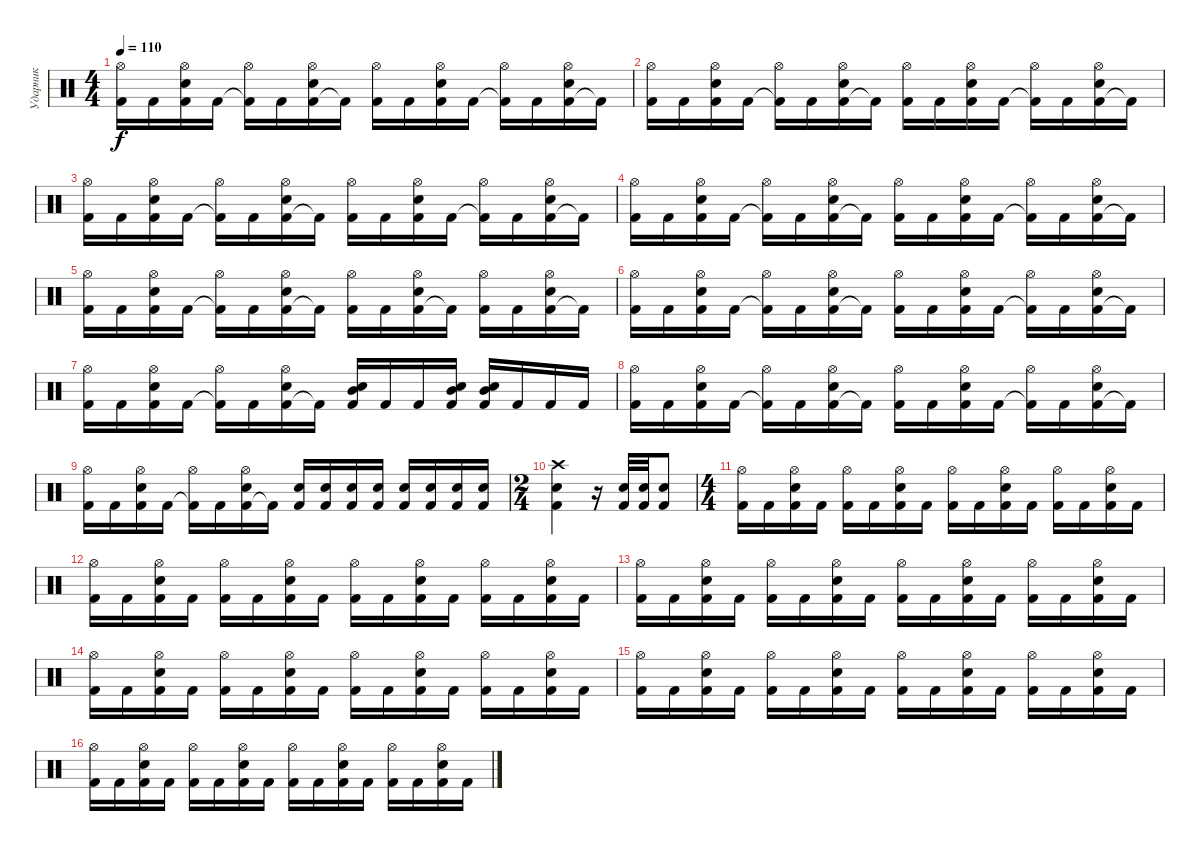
\track ("Ударник" "Ударник") {instrument percussion}
\staff
\articulation defaults
\ts (4 4)
\tempo 110
\clef neutral
\ks c
("Kick (hit) 2" "Hi-Hat (open)").16{dy f} "Kick (hit) 2".16 ("Kick (hit) 2" "Snare (hit) 2" "Hi-Hat (open)").16 "Kick (hit) 2".16 ("Kick (hit) 2"{t} "Hi-Hat (open)").16 "Kick (hit) 2".16 ("Kick (hit) 2" "Snare (hit) 2" "Hi-Hat (open)").16 "Kick (hit) 2"{t}.16 ("Kick (hit) 2" "Hi-Hat (open)").16 "Kick (hit) 2".16 ("Kick (hit) 2" "Snare (hit) 2" "Hi-Hat (open)").16 "Kick (hit) 2".16 ("Kick (hit) 2"{t} "Hi-Hat (open)").16 "Kick (hit) 2".16 ("Kick (hit) 2" "Snare (hit) 2" "Hi-Hat (open)").16 "Kick (hit) 2"{t}.16 |
("Kick (hit) 2" "Hi-Hat (open)").16 "Kick (hit) 2".16 ("Kick (hit) 2" "Snare (hit) 2" "Hi-Hat (open)").16 "Kick (hit) 2".16 ("Kick (hit) 2"{t} "Hi-Hat (open)").16 "Kick (hit) 2".16 ("Kick (hit) 2" "Snare (hit) 2" "Hi-Hat (open)").16 "Kick (hit) 2"{t}.16 ("Kick (hit) 2" "Hi-Hat (open)").16 "Kick (hit) 2".16 ("Kick (hit) 2" "Snare (hit) 2" "Hi-Hat (open)").16 "Kick (hit) 2".16 ("Kick (hit) 2"{t} "Hi-Hat (open)").16 "Kick (hit) 2".16 ("Kick (hit) 2" "Snare (hit) 2" "Hi-Hat (open)").16 "Kick (hit) 2"{t}.16 |
("Kick (hit) 2" "Hi-Hat (open)").16 "Kick (hit) 2".16 ("Kick (hit) 2" "Snare (hit) 2" "Hi-Hat (open)").16 "Kick (hit) 2".16 ("Kick (hit) 2"{t} "Hi-Hat (open)").16 "Kick (hit) 2".16 ("Kick (hit) 2" "Snare (hit) 2" "Hi-Hat (open)").16 "Kick (hit) 2"{t}.16 ("Kick (hit) 2" "Hi-Hat (open)").16 "Kick (hit) 2".16 ("Kick (hit) 2" "Snare (hit) 2" "Hi-Hat (open)").16 "Kick (hit) 2".16 ("Kick (hit) 2"{t} "Hi-Hat (open)").16 "Kick (hit) 2".16 ("Kick (hit) 2" "Snare (hit) 2" "Hi-Hat (open)").16 "Kick (hit) 2"{t}.16 |
("Kick (hit) 2" "Hi-Hat (open)").16 "Kick (hit) 2".16 ("Kick (hit) 2" "Snare (hit) 2" "Hi-Hat (open)").16 "Kick (hit) 2".16 ("Kick (hit) 2"{t} "Hi-Hat (open)").16 "Kick (hit) 2".16 ("Kick (hit) 2" "Snare (hit) 2" "Hi-Hat (open)").16 "Kick (hit) 2"{t}.16 ("Kick (hit) 2" "Hi-Hat (open)").16 "Kick (hit) 2".16 ("Kick (hit) 2" "Snare (hit) 2" "Hi-Hat (open)").16 "Kick (hit) 2".16 ("Kick (hit) 2"{t} "Hi-Hat (open)").16 "Kick (hit) 2".16 ("Kick (hit) 2" "Snare (hit) 2" "Hi-Hat (open)").16 "Kick (hit) 2"{t}.16 |
("Kick (hit) 2" "Hi-Hat (open)").16 "Kick (hit) 2".16 ("Kick (hit) 2" "Snare (hit) 2" "Hi-Hat (open)").16 "Kick (hit) 2".16 ("Kick (hit) 2"{t} "Hi-Hat (open)").16 "Kick (hit) 2".16 ("Kick (hit) 2" "Snare (hit) 2" "Hi-Hat (open)").16 "Kick (hit) 2"{t}.16 ("Kick (hit) 2" "Hi-Hat (open)").16 "Kick (hit) 2".16 ("Kick (hit) 2" "Snare (hit) 2" "Hi-Hat (open)").16 "Kick (hit) 2"{t}.16 ("Kick (hit) 2" "Hi-Hat (open)").16 "Kick (hit) 2".16 ("Kick (hit) 2" "Snare (hit) 2" "Hi-Hat (open)").16 "Kick (hit) 2"{t}.16 |
("Kick (hit) 2" "Hi-Hat (open)").16 "Kick (hit) 2".16 ("Kick (hit) 2" "Snare (hit) 2" "Hi-Hat (open)").16 "Kick (hit) 2".16 ("Kick (hit) 2"{t} "Hi-Hat (open)").16 "Kick (hit) 2".16 ("Kick (hit) 2" "Snare (hit) 2" "Hi-Hat (open)").16 "Kick (hit) 2"{t}.16 ("Kick (hit) 2" "Hi-Hat (open)").16 "Kick (hit) 2".16 ("Kick (hit) 2" "Snare (hit) 2" "Hi-Hat (open)").16 "Kick (hit) 2".16 ("Kick (hit) 2"{t} "Hi-Hat (open)").16 "Kick (hit) 2".16 ("Kick (hit) 2" "Snare (hit) 2" "Hi-Hat (open)").16 "Kick (hit) 2"{t}.16 |
("Kick (hit) 2" "Hi-Hat (open)").16 "Kick (hit) 2".16 ("Kick (hit) 2" "Snare (hit) 2" "Hi-Hat (open)").16 "Kick (hit) 2".16 ("Kick (hit) 2"{t} "Hi-Hat (open)").16 "Kick (hit) 2".16 ("Kick (hit) 2" "Snare (hit) 2" "Hi-Hat (open)").16 "Kick (hit) 2"{t}.16 ("Kick (hit) 2" "Snare (hit) 2" "Mid Tom (hit)").16 "Kick (hit) 2".16 "Kick (hit) 2".16 ("Kick (hit) 2" "Snare (hit) 2" "Mid Tom (hit)").16 ("Kick (hit) 2" "Snare (hit) 2" "Mid Tom (hit)").16 "Kick (hit) 2".16 "Kick (hit) 2".16 "Kick (hit) 2".16 |
("Kick (hit) 2" "Hi-Hat (open)").16 "Kick (hit) 2".16 ("Kick (hit) 2" "Snare (hit) 2" "Hi-Hat (open)").16 "Kick (hit) 2".16 ("Kick (hit) 2"{t} "Hi-Hat (open)").16 "Kick (hit) 2".16 ("Kick (hit) 2" "Snare (hit) 2" "Hi-Hat (open)").16 "Kick (hit) 2"{t}.16 ("Kick (hit) 2" "Hi-Hat (open)").16 "Kick (hit) 2".16 ("Kick (hit) 2" "Snare (hit) 2" "Hi-Hat (open)").16 "Kick (hit) 2".16 ("Kick (hit) 2"{t} "Hi-Hat (open)").16 "Kick (hit) 2".16 ("Kick (hit) 2" "Snare (hit) 2" "Hi-Hat (open)").16 "Kick (hit) 2"{t}.16 |
("Kick (hit) 2" "Hi-Hat (open)").16 "Kick (hit) 2".16 ("Kick (hit) 2" "Snare (hit) 2" "Hi-Hat (open)").16 "Kick (hit) 2".16 ("Kick (hit) 2"{t} "Hi-Hat (open)").16 "Kick (hit) 2".16 ("Kick (hit) 2" "Snare (hit) 2" "Hi-Hat (open)").16 "Kick (hit) 2"{t}.16 ("Kick (hit) 2" "Snare (hit) 2").16 ("Kick (hit) 2" "Snare (hit) 2").16 ("Kick (hit) 2" "Snare (hit) 2").16 ("Kick (hit) 2" "Snare (hit) 2").16 ("Kick (hit) 2" "Snare (hit) 2").16 ("Kick (hit) 2" "Snare (hit) 2").16 ("Kick (hit) 2" "Snare (hit) 2").16 ("Kick (hit) 2" "Snare (hit) 2").16 |
\ts (2 4)
("Kick (hit) 2" "Snare (hit) 2" "Crash high (hit)").4 r.16 ("Kick (hit) 2" "Snare (hit) 2").32 ("Kick (hit) 2" "Snare (hit) 2").32 ("Kick (hit) 2" "Snare (hit) 2").8 |
\ts (4 4)
("Kick (hit) 2" "Hi-Hat (open)").16 "Kick (hit) 2".16 ("Kick (hit) 2" "Snare (hit) 2" "Hi-Hat (open)").16 "Kick (hit) 2".16 ("Kick (hit) 2" "Hi-Hat (open)").16 "Kick (hit) 2".16 ("Kick (hit) 2" "Snare (hit) 2" "Hi-Hat (open)").16 "Kick (hit) 2".16 ("Kick (hit) 2" "Hi-Hat (open)").16 "Kick (hit) 2".16 ("Kick (hit) 2" "Snare (hit) 2" "Hi-Hat (open)").16 "Kick (hit) 2".16 ("Kick (hit) 2" "Hi-Hat (open)").16 "Kick (hit) 2".16 ("Kick (hit) 2" "Snare (hit) 2" "Hi-Hat (open)").16 "Kick (hit) 2".16 |
("Kick (hit) 2" "Hi-Hat (open)").16 "Kick (hit) 2".16 ("Kick (hit) 2" "Snare (hit) 2" "Hi-Hat (open)").16 "Kick (hit) 2".16 ("Kick (hit) 2" "Hi-Hat (open)").16 "Kick (hit) 2".16 ("Kick (hit) 2" "Snare (hit) 2" "Hi-Hat (open)").16 "Kick (hit) 2".16 ("Kick (hit) 2" "Hi-Hat (open)").16 "Kick (hit) 2".16 ("Kick (hit) 2" "Snare (hit) 2" "Hi-Hat (open)").16 "Kick (hit) 2".16 ("Kick (hit) 2" "Hi-Hat (open)").16 "Kick (hit) 2".16 ("Kick (hit) 2" "Snare (hit) 2" "Hi-Hat (open)").16 "Kick (hit) 2".16 |
("Kick (hit) 2" "Hi-Hat (open)").16 "Kick (hit) 2".16 ("Kick (hit) 2" "Snare (hit) 2" "Hi-Hat (open)").16 "Kick (hit) 2".16 ("Kick (hit) 2" "Hi-Hat (open)").16 "Kick (hit) 2".16 ("Kick (hit) 2" "Snare (hit) 2" "Hi-Hat (open)").16 "Kick (hit) 2".16 ("Kick (hit) 2" "Hi-Hat (open)").16 "Kick (hit) 2".16 ("Kick (hit) 2" "Snare (hit) 2" "Hi-Hat (open)").16 "Kick (hit) 2".16 ("Kick (hit) 2" "Hi-Hat (open)").16 "Kick (hit) 2".16 ("Kick (hit) 2" "Snare (hit) 2" "Hi-Hat (open)").16 "Kick (hit) 2".16 |
("Kick (hit) 2" "Hi-Hat (open)").16 "Kick (hit) 2".16 ("Kick (hit) 2" "Snare (hit) 2" "Hi-Hat (open)").16 "Kick (hit) 2".16 ("Kick (hit) 2" "Hi-Hat (open)").16 "Kick (hit) 2".16 ("Kick (hit) 2" "Snare (hit) 2" "Hi-Hat (open)").16 "Kick (hit) 2".16 ("Kick (hit) 2" "Hi-Hat (open)").16 "Kick (hit) 2".16 ("Kick (hit) 2" "Snare (hit) 2" "Hi-Hat (open)").16 "Kick (hit) 2".16 ("Kick (hit) 2" "Hi-Hat (open)").16 "Kick (hit) 2".16 ("Kick (hit) 2" "Snare (hit) 2" "Hi-Hat (open)").16 "Kick (hit) 2".16 |
("Kick (hit) 2" "Hi-Hat (open)").16 "Kick (hit) 2".16 ("Kick (hit) 2" "Snare (hit) 2" "Hi-Hat (open)").16 "Kick (hit) 2".16 ("Kick (hit) 2" "Hi-Hat (open)").16 "Kick (hit) 2".16 ("Kick (hit) 2" "Snare (hit) 2" "Hi-Hat (open)").16 "Kick (hit) 2".16 ("Kick (hit) 2" "Hi-Hat (open)").16 "Kick (hit) 2".16 ("Kick (hit) 2" "Snare (hit) 2" "Hi-Hat (open)").16 "Kick (hit) 2".16 ("Kick (hit) 2" "Hi-Hat (open)").16 "Kick (hit) 2".16 ("Kick (hit) 2" "Snare (hit) 2" "Hi-Hat (open)").16 "Kick (hit) 2".16 |
("Kick (hit) 2" "Hi-Hat (open)").16 "Kick (hit) 2".16 ("Kick (hit) 2" "Snare (hit) 2" "Hi-Hat (open)").16 "Kick (hit) 2".16 ("Kick (hit) 2" "Hi-Hat (open)").16 "Kick (hit) 2".16 ("Kick (hit) 2" "Snare (hit) 2" "Hi-Hat (open)").16 "Kick (hit) 2".16 ("Kick (hit) 2" "Hi-Hat (open)").16 "Kick (hit) 2".16 ("Kick (hit) 2" "Snare (hit) 2" "Hi-Hat (open)").16 "Kick (hit) 2".16 ("Kick (hit) 2" "Hi-Hat (open)").16 "Kick (hit) 2".16 ("Kick (hit) 2" "Snare (hit) 2" "Hi-Hat (open)").16 "Kick (hit) 2".16
